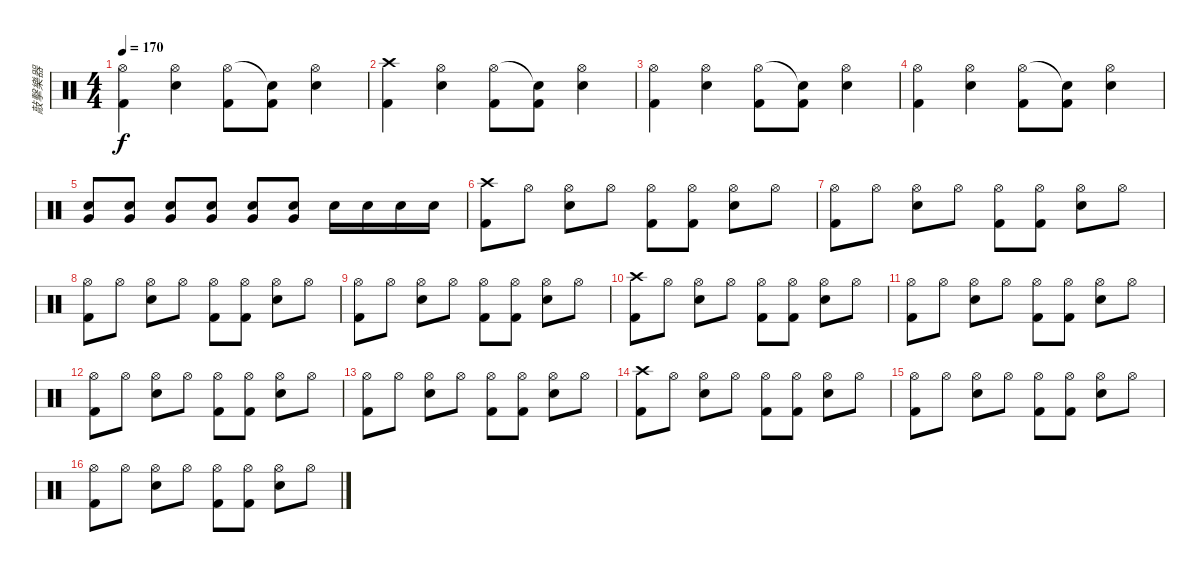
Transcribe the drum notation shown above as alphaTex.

\track ("敲擊樂器" "敲擊樂器") {instrument percussion}
\staff {score}
\articulation defaults
\ts (4 4)
\tempo 170
\clef neutral
\ks c
("Hi-Hat (open)" "Kick (hit) 2").4{dy f} ("Hi-Hat (open)" "Snare (hit) 2").4 ("Hi-Hat (open)" "Kick (hit) 2").8 ("Snare (hit)"{t} "Kick (hit) 2").8 ("Hi-Hat (open)" "Snare (hit) 2").4 |
("Crash high (hit)" "Kick (hit) 2").4 ("Hi-Hat (open)" "Snare (hit) 2").4 ("Hi-Hat (open)" "Kick (hit) 2").8 ("Snare (hit)"{t} "Kick (hit) 2").8 ("Hi-Hat (open)" "Snare (hit) 2").4 |
("Hi-Hat (open)" "Kick (hit) 2").4 ("Hi-Hat (open)" "Snare (hit) 2").4 ("Hi-Hat (open)" "Kick (hit) 2").8 ("Snare (hit)"{t} "Kick (hit) 2").8 ("Hi-Hat (open)" "Snare (hit) 2").4 |
("Hi-Hat (open)" "Kick (hit) 2").4 ("Hi-Hat (open)" "Snare (hit) 2").4 ("Hi-Hat (open)" "Kick (hit) 2").8 ("Snare (hit)"{t} "Kick (hit) 2").8 ("Hi-Hat (open)" "Snare (hit) 2").4 |
("Snare (hit) 2" "Very Low Tom (hit)").8 ("Snare (hit) 2" "Very Low Tom (hit)").8 ("Snare (hit) 2" "Very Low Tom (hit)").8 ("Snare (hit) 2" "Very Low Tom (hit)").8 ("Snare (hit) 2" "Very Low Tom (hit)").8 ("Snare (hit) 2" "Very Low Tom (hit)").8 "Snare (hit) 2".16 "Snare (hit) 2".16 "Snare (hit) 2".16 "Snare (hit) 2".16 |
("Crash high (hit)" "Kick (hit) 2").8 "Hi-Hat (open)".8 ("Hi-Hat (open)" "Snare (hit) 2").8 "Hi-Hat (open)".8 ("Hi-Hat (open)" "Kick (hit) 2").8 ("Hi-Hat (open)" "Kick (hit) 2").8 ("Hi-Hat (open)" "Snare (hit) 2").8 "Hi-Hat (open)".8 |
("Hi-Hat (open)" "Kick (hit) 2").8 "Hi-Hat (open)".8 ("Hi-Hat (open)" "Snare (hit) 2").8 "Hi-Hat (open)".8 ("Hi-Hat (open)" "Kick (hit) 2").8 ("Hi-Hat (open)" "Kick (hit) 2").8 ("Hi-Hat (open)" "Snare (hit) 2").8 "Hi-Hat (open)".8 |
("Hi-Hat (open)" "Kick (hit) 2").8 "Hi-Hat (open)".8 ("Hi-Hat (open)" "Snare (hit) 2").8 "Hi-Hat (open)".8 ("Hi-Hat (open)" "Kick (hit) 2").8 ("Hi-Hat (open)" "Kick (hit) 2").8 ("Hi-Hat (open)" "Snare (hit) 2").8 "Hi-Hat (open)".8 |
("Hi-Hat (open)" "Kick (hit) 2").8 "Hi-Hat (open)".8 ("Hi-Hat (open)" "Snare (hit) 2").8 "Hi-Hat (open)".8 ("Hi-Hat (open)" "Kick (hit) 2").8 ("Hi-Hat (open)" "Kick (hit) 2").8 ("Hi-Hat (open)" "Snare (hit) 2").8 "Hi-Hat (open)".8 |
("Crash high (hit)" "Kick (hit) 2").8 "Hi-Hat (open)".8 ("Hi-Hat (open)" "Snare (hit) 2").8 "Hi-Hat (open)".8 ("Hi-Hat (open)" "Kick (hit) 2").8 ("Hi-Hat (open)" "Kick (hit) 2").8 ("Hi-Hat (open)" "Snare (hit) 2").8 "Hi-Hat (open)".8 |
("Hi-Hat (open)" "Kick (hit) 2").8 "Hi-Hat (open)".8 ("Hi-Hat (open)" "Snare (hit) 2").8 "Hi-Hat (open)".8 ("Hi-Hat (open)" "Kick (hit) 2").8 ("Hi-Hat (open)" "Kick (hit) 2").8 ("Hi-Hat (open)" "Snare (hit) 2").8 "Hi-Hat (open)".8 |
("Hi-Hat (open)" "Kick (hit) 2").8 "Hi-Hat (open)".8 ("Hi-Hat (open)" "Snare (hit) 2").8 "Hi-Hat (open)".8 ("Hi-Hat (open)" "Kick (hit) 2").8 ("Hi-Hat (open)" "Kick (hit) 2").8 ("Hi-Hat (open)" "Snare (hit) 2").8 "Hi-Hat (open)".8 |
("Hi-Hat (open)" "Kick (hit) 2").8 "Hi-Hat (open)".8 ("Hi-Hat (open)" "Snare (hit) 2").8 "Hi-Hat (open)".8 ("Hi-Hat (open)" "Kick (hit) 2").8 ("Hi-Hat (open)" "Kick (hit) 2").8 ("Hi-Hat (open)" "Snare (hit) 2").8 "Hi-Hat (open)".8 |
("Crash high (hit)" "Kick (hit) 2").8 "Hi-Hat (open)".8 ("Hi-Hat (open)" "Snare (hit) 2").8 "Hi-Hat (open)".8 ("Hi-Hat (open)" "Kick (hit) 2").8 ("Hi-Hat (open)" "Kick (hit) 2").8 ("Hi-Hat (open)" "Snare (hit) 2").8 "Hi-Hat (open)".8 |
("Hi-Hat (open)" "Kick (hit) 2").8 "Hi-Hat (open)".8 ("Hi-Hat (open)" "Snare (hit) 2").8 "Hi-Hat (open)".8 ("Hi-Hat (open)" "Kick (hit) 2").8 ("Hi-Hat (open)" "Kick (hit) 2").8 ("Hi-Hat (open)" "Snare (hit) 2").8 "Hi-Hat (open)".8 |
("Hi-Hat (open)" "Kick (hit) 2").8 "Hi-Hat (open)".8 ("Hi-Hat (open)" "Snare (hit) 2").8 "Hi-Hat (open)".8 ("Hi-Hat (open)" "Kick (hit) 2").8 ("Hi-Hat (open)" "Kick (hit) 2").8 ("Hi-Hat (open)" "Snare (hit) 2").8 "Hi-Hat (open)".8
